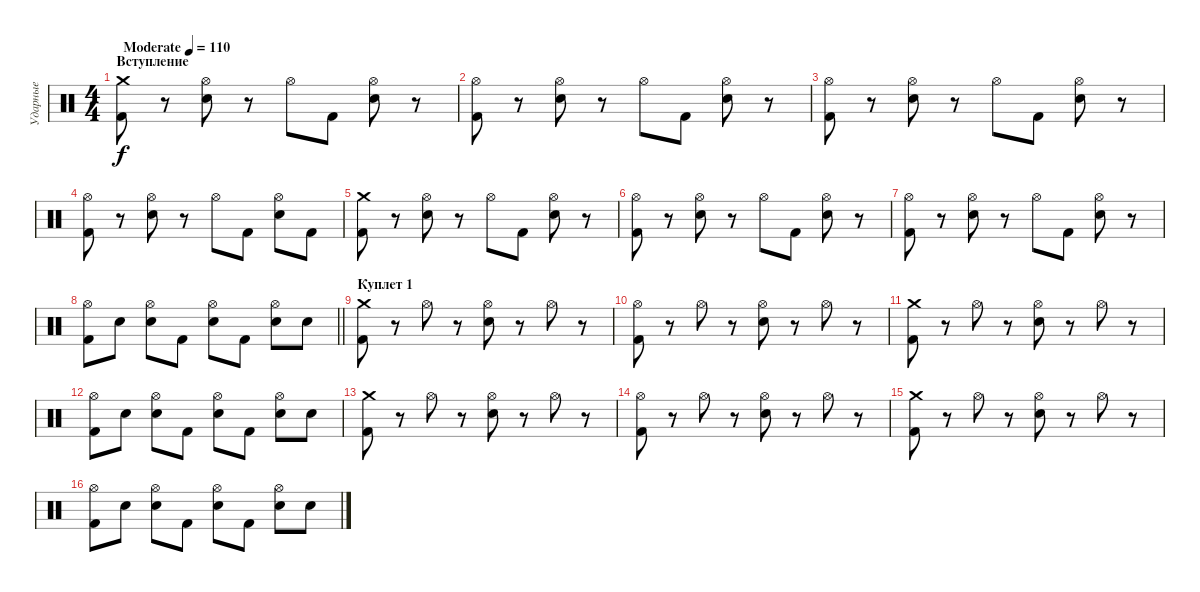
\track ("Ударные" "Ударные") {instrument percussion}
\staff {score}
\articulation defaults
\ts (4 4)
\section ("" "Вступление")
\tempo (110 "Moderate")
\clef neutral
\ks c
("Crash medium (hit)" "Kick (hit) 2").8{dy f} r.8 ("Hi-Hat (open)" "Snare (hit) 2").8 r.8 "Hi-Hat (open)".8 "Kick (hit) 2".8 ("Hi-Hat (open)" "Snare (hit) 2").8 r.8 |
("Hi-Hat (open)" "Kick (hit) 2").8 r.8 ("Hi-Hat (open)" "Snare (hit) 2").8 r.8 "Hi-Hat (open)".8 "Kick (hit) 2".8 ("Hi-Hat (open)" "Snare (hit) 2").8 r.8 |
("Hi-Hat (open)" "Kick (hit) 2").8 r.8 ("Hi-Hat (open)" "Snare (hit) 2").8 r.8 "Hi-Hat (open)".8 "Kick (hit) 2".8 ("Hi-Hat (open)" "Snare (hit) 2").8 r.8 |
("Hi-Hat (open)" "Kick (hit) 2").8 r.8 ("Hi-Hat (open)" "Snare (hit) 2").8 r.8 "Hi-Hat (open)".8 "Kick (hit) 2".8 ("Hi-Hat (open)" "Snare (hit) 2").8 "Kick (hit) 2".8 |
("Crash medium (hit)" "Kick (hit) 2").8 r.8 ("Hi-Hat (open)" "Snare (hit) 2").8 r.8 "Hi-Hat (open)".8 "Kick (hit) 2".8 ("Hi-Hat (open)" "Snare (hit) 2").8 r.8 |
("Hi-Hat (open)" "Kick (hit) 2").8 r.8 ("Hi-Hat (open)" "Snare (hit) 2").8 r.8 "Hi-Hat (open)".8 "Kick (hit) 2".8 ("Hi-Hat (open)" "Snare (hit) 2").8 r.8 |
("Hi-Hat (open)" "Kick (hit) 2").8 r.8 ("Hi-Hat (open)" "Snare (hit) 2").8 r.8 "Hi-Hat (open)".8 "Kick (hit) 2".8 ("Hi-Hat (open)" "Snare (hit) 2").8 r.8 |
\barLineRight lightlight
("Hi-Hat (open)" "Kick (hit) 2").8 "Snare (hit) 2".8 ("Hi-Hat (open)" "Snare (hit) 2").8 "Kick (hit) 2".8 ("Hi-Hat (open)" "Snare (hit) 2").8 "Kick (hit) 2".8 ("Hi-Hat (open)" "Snare (hit) 2").8 "Snare (hit) 2".8 |
\section ("" "Куплет 1")
("Crash medium (hit)" "Kick (hit) 2").8 r.8 "Hi-Hat (open)".8 r.8 ("Hi-Hat (open)" "Snare (hit) 2").8 r.8 "Hi-Hat (open)".8 r.8 |
("Hi-Hat (open)" "Kick (hit) 2").8 r.8 "Hi-Hat (open)".8 r.8 ("Hi-Hat (open)" "Snare (hit) 2").8 r.8 "Hi-Hat (open)".8 r.8 |
("Crash medium (hit)" "Kick (hit) 2").8 r.8 "Hi-Hat (open)".8 r.8 ("Hi-Hat (open)" "Snare (hit) 2").8 r.8 "Hi-Hat (open)".8 r.8 |
("Hi-Hat (open)" "Kick (hit) 2").8 "Snare (hit) 2".8 ("Hi-Hat (open)" "Snare (hit) 2").8 "Kick (hit) 2".8 ("Hi-Hat (open)" "Snare (hit) 2").8 "Kick (hit) 2".8 ("Hi-Hat (open)" "Snare (hit) 2").8 "Snare (hit) 2".8 |
("Crash medium (hit)" "Kick (hit) 2").8 r.8 "Hi-Hat (open)".8 r.8 ("Hi-Hat (open)" "Snare (hit) 2").8 r.8 "Hi-Hat (open)".8 r.8 |
("Hi-Hat (open)" "Kick (hit) 2").8 r.8 "Hi-Hat (open)".8 r.8 ("Hi-Hat (open)" "Snare (hit) 2").8 r.8 "Hi-Hat (open)".8 r.8 |
("Crash medium (hit)" "Kick (hit) 2").8 r.8 "Hi-Hat (open)".8 r.8 ("Hi-Hat (open)" "Snare (hit) 2").8 r.8 "Hi-Hat (open)".8 r.8 |
("Hi-Hat (open)" "Kick (hit) 2").8 "Snare (hit) 2".8 ("Hi-Hat (open)" "Snare (hit) 2").8 "Kick (hit) 2".8 ("Hi-Hat (open)" "Snare (hit) 2").8 "Kick (hit) 2".8 ("Hi-Hat (open)" "Snare (hit) 2").8 "Snare (hit) 2".8
